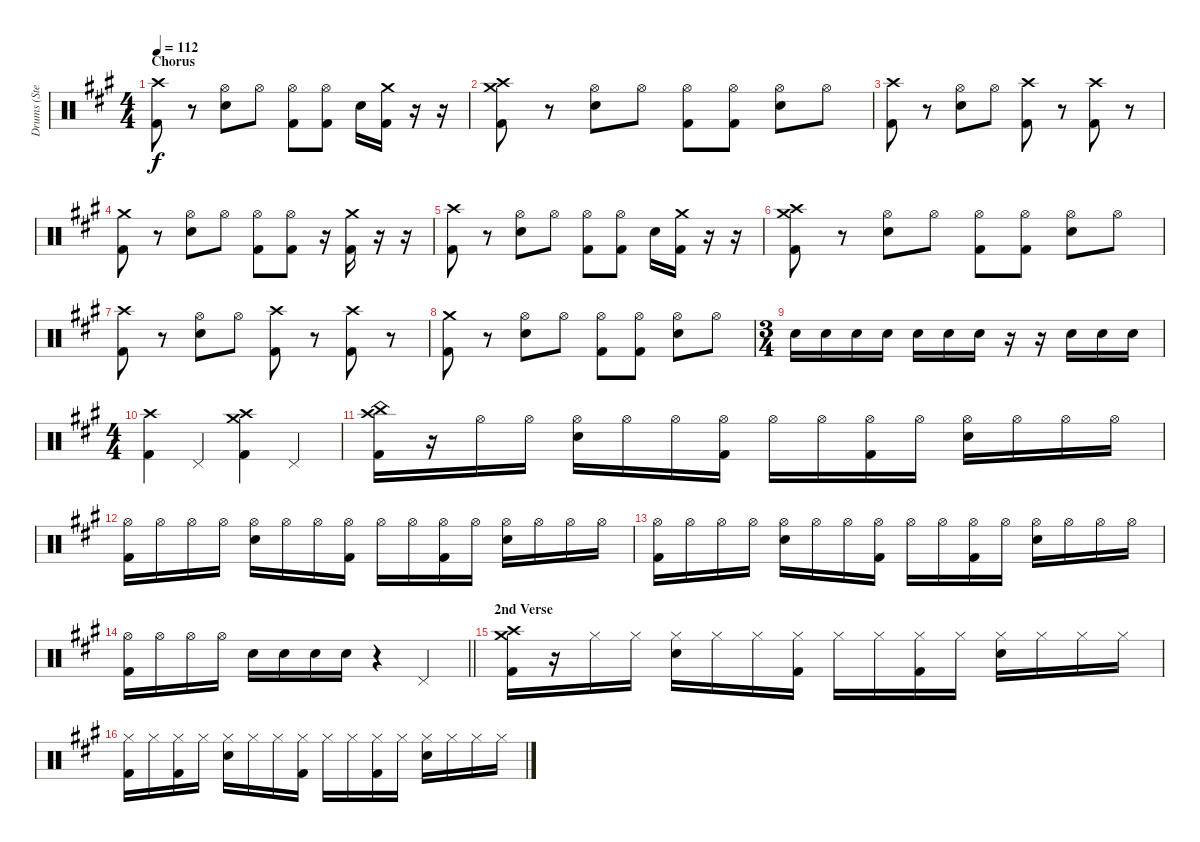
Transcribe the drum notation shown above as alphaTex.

\track ("Drums (Steven)" "Drums (Ste") {instrument percussion}
\staff {score}
\articulation defaults
\ts (4 4)
\section ("" "Chorus")
\tempo 112
\clef neutral
\ks f#minor
("Crash high (hit)" "Kick (hit) 2").8{dy f} r.8 ("Hi-Hat (open)" "Snare (hit) 2").8 "Hi-Hat (open)".8 ("Hi-Hat (open)" "Kick (hit) 2").8 ("Hi-Hat (open)" "Kick (hit) 2").8 "Snare (hit) 2".16 ("Crash medium (hit)" "Kick (hit) 2").16 r.16 r.16 |
("Crash high (hit)" "Crash medium (hit)" "Kick (hit) 2").8 r.8 ("Hi-Hat (open)" "Snare (hit) 2").8 "Hi-Hat (open)".8 ("Hi-Hat (open)" "Kick (hit) 2").8 ("Hi-Hat (open)" "Kick (hit) 2").8 ("Hi-Hat (open)" "Snare (hit) 2").8 "Hi-Hat (open)".8 |
("Crash high (hit)" "Kick (hit) 2").8 r.8 ("Hi-Hat (open)" "Snare (hit) 2").8 "Hi-Hat (open)".8 ("Crash high (hit)" "Kick (hit) 2").8 r.8 ("Crash high (hit)" "Kick (hit) 2").8 r.8 |
("Crash medium (hit)" "Kick (hit) 2").8 r.8 ("Hi-Hat (open)" "Snare (hit) 2").8 "Hi-Hat (open)".8 ("Hi-Hat (open)" "Kick (hit) 2").8 ("Hi-Hat (open)" "Kick (hit) 2").8 r.16 ("Crash medium (hit)" "Kick (hit) 2").16 r.16 r.16 |
("Crash high (hit)" "Kick (hit) 2").8 r.8 ("Hi-Hat (open)" "Snare (hit) 2").8 "Hi-Hat (open)".8 ("Hi-Hat (open)" "Kick (hit) 2").8 ("Hi-Hat (open)" "Kick (hit) 2").8 "Snare (hit) 2".16 ("Crash medium (hit)" "Kick (hit) 2").16 r.16 r.16 |
("Crash high (hit)" "Crash medium (hit)" "Kick (hit) 2").8 r.8 ("Hi-Hat (open)" "Snare (hit) 2").8 "Hi-Hat (open)".8 ("Hi-Hat (open)" "Kick (hit) 2").8 ("Hi-Hat (open)" "Kick (hit) 2").8 ("Hi-Hat (open)" "Snare (hit) 2").8 "Hi-Hat (open)".8 |
("Crash high (hit)" "Kick (hit) 2").8 r.8 ("Hi-Hat (open)" "Snare (hit) 2").8 "Hi-Hat (open)".8 ("Crash high (hit)" "Kick (hit) 2").8 r.8 ("Crash high (hit)" "Kick (hit) 2").8 r.8 |
("Crash medium (hit)" "Kick (hit) 2").8 r.8 ("Hi-Hat (open)" "Snare (hit) 2").8 "Hi-Hat (open)".8 ("Hi-Hat (open)" "Kick (hit) 2").8 ("Hi-Hat (open)" "Kick (hit) 2").8 ("Hi-Hat (open)" "Snare (hit) 2").8 "Hi-Hat (open)".8 |
\ts (3 4)
"Snare (hit) 2".16 "Snare (hit) 2".16 "Snare (hit) 2".16 "Snare (hit) 2".16 "Snare (hit) 2".16 "Snare (hit) 2".16 "Snare (hit) 2".16 r.16 r.16 "Snare (hit) 2".16 "Snare (hit) 2".16 "Snare (hit) 2".16 |
\ts (4 4)
("Crash high (hit)" "Kick (hit) 2").4 "Pedal Hi-Hat (hit)".4 ("Crash high (hit)" "Crash medium (hit)" "Kick (hit) 2").4 "Pedal Hi-Hat (hit)".4 |
("Crash high (hit)" "China (hit)" "Kick (hit) 2").16 r.16 "Hi-Hat (open)".16 "Hi-Hat (open)".16 ("Hi-Hat (open)" "Snare (hit) 2").16 "Hi-Hat (open)".16 "Hi-Hat (open)".16 ("Hi-Hat (open)" "Kick (hit) 2").16 "Hi-Hat (open)".16 "Hi-Hat (open)".16 ("Hi-Hat (open)" "Kick (hit) 2").16 "Hi-Hat (open)".16 ("Hi-Hat (open)" "Snare (hit) 2").16 "Hi-Hat (open)".16 "Hi-Hat (open)".16 "Hi-Hat (open)".16 |
("Hi-Hat (open)" "Kick (hit) 2").16 "Hi-Hat (open)".16 "Hi-Hat (open)".16 "Hi-Hat (open)".16 ("Hi-Hat (open)" "Snare (hit) 2").16 "Hi-Hat (open)".16 "Hi-Hat (open)".16 ("Hi-Hat (open)" "Kick (hit) 2").16 "Hi-Hat (open)".16 "Hi-Hat (open)".16 ("Hi-Hat (open)" "Kick (hit) 2").16 "Hi-Hat (open)".16 ("Hi-Hat (open)" "Snare (hit) 2").16 "Hi-Hat (open)".16 "Hi-Hat (open)".16 "Hi-Hat (open)".16 |
("Hi-Hat (open)" "Kick (hit) 2").16 "Hi-Hat (open)".16 "Hi-Hat (open)".16 "Hi-Hat (open)".16 ("Hi-Hat (open)" "Snare (hit) 2").16 "Hi-Hat (open)".16 "Hi-Hat (open)".16 ("Hi-Hat (open)" "Kick (hit) 2").16 "Hi-Hat (open)".16 "Hi-Hat (open)".16 ("Hi-Hat (open)" "Kick (hit) 2").16 "Hi-Hat (open)".16 ("Hi-Hat (open)" "Snare (hit) 2").16 "Hi-Hat (open)".16 "Hi-Hat (open)".16 "Hi-Hat (open)".16 |
\barLineRight lightlight
("Hi-Hat (open)" "Kick (hit) 2").16 "Hi-Hat (open)".16 "Hi-Hat (open)".16 "Hi-Hat (open)".16 "Snare (hit) 2".16 "Snare (hit) 2".16 "Snare (hit) 2".16 "Snare (hit) 2".16 r.4 "Pedal Hi-Hat (hit)".4 |
\section ("" "2nd Verse")
("Crash high (hit)" "Crash medium (hit)" "Kick (hit) 2").16 r.16 "Hi-Hat (closed)".16 "Hi-Hat (closed)".16 ("Hi-Hat (closed)" "Snare (hit) 2").16 "Hi-Hat (closed)".16 "Hi-Hat (closed)".16 ("Hi-Hat (closed)" "Kick (hit) 2").16 "Hi-Hat (closed)".16 "Hi-Hat (closed)".16 ("Hi-Hat (closed)" "Kick (hit) 2").16 "Hi-Hat (closed)".16 ("Hi-Hat (closed)" "Snare (hit) 2").16 "Hi-Hat (closed)".16 "Hi-Hat (closed)".16 "Hi-Hat (closed)".16 |
("Hi-Hat (closed)" "Kick (hit) 2").16 "Hi-Hat (closed)".16 ("Hi-Hat (closed)" "Kick (hit) 2").16 "Hi-Hat (closed)".16 ("Hi-Hat (closed)" "Snare (hit) 2").16 "Hi-Hat (closed)".16 "Hi-Hat (closed)".16 ("Hi-Hat (closed)" "Kick (hit) 2").16 "Hi-Hat (closed)".16 "Hi-Hat (closed)".16 ("Hi-Hat (closed)" "Kick (hit) 2").16 "Hi-Hat (closed)".16 ("Hi-Hat (closed)" "Snare (hit) 2").16 "Hi-Hat (closed)".16 "Hi-Hat (closed)".16 "Hi-Hat (closed)".16
